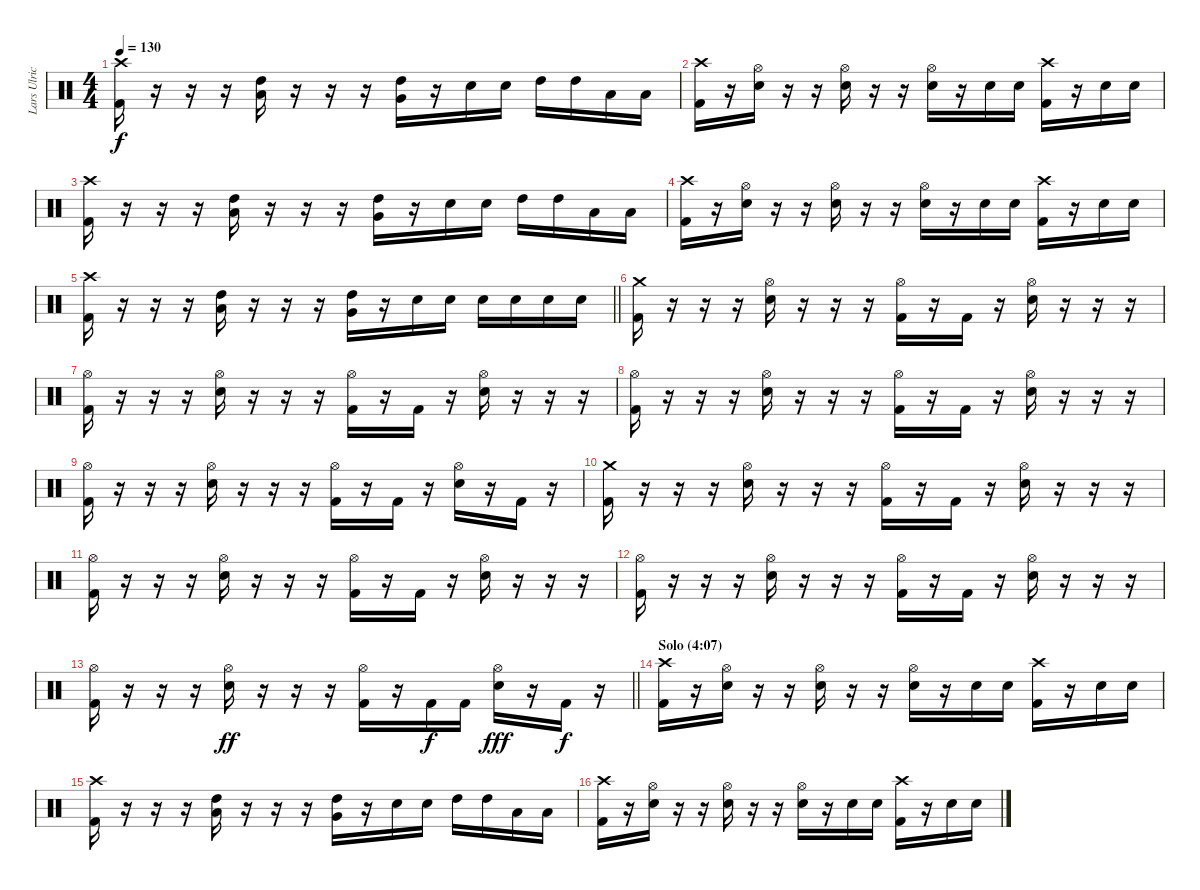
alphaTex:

\track ("Lars Ulrich" "Lars Ulric") {instrument percussion}
\staff {score}
\articulation defaults
\ts (4 4)
\tempo 130
\clef neutral
\ks c
("Crash high (hit)" "Kick (hit) 2").16{dy f} r.16 r.16 r.16 ("Low Tom (hit)" "High Tom (hit)").16 r.16 r.16 r.16 ("Very Low Tom (hit)" "High Tom (hit)").16 r.16 "Electric Snare (hit)".16 "Electric Snare (hit)".16 "High Tom (hit)".16 "High Tom (hit)".16 "Low Tom (hit)".16 "Low Tom (hit)".16 |
("Crash high (hit)" "Kick (hit) 2").16 r.16 ("Electric Snare (hit)" "Hi-Hat (open)").16 r.16 r.16 ("Electric Snare (hit)" "Hi-Hat (open)").16 r.16 r.16 ("Electric Snare (hit)" "Hi-Hat (open)").16 r.16 "Electric Snare (hit)".16 "Electric Snare (hit)".16 ("Crash high (hit)" "Kick (hit) 2").16 r.16 "Electric Snare (hit)".16 "Electric Snare (hit)".16 |
("Crash high (hit)" "Kick (hit) 2").16 r.16 r.16 r.16 ("Low Tom (hit)" "High Tom (hit)").16 r.16 r.16 r.16 ("Very Low Tom (hit)" "High Tom (hit)").16 r.16 "Electric Snare (hit)".16 "Electric Snare (hit)".16 "High Tom (hit)".16 "High Tom (hit)".16 "Low Tom (hit)".16 "Low Tom (hit)".16 |
("Crash high (hit)" "Kick (hit) 2").16 r.16 ("Electric Snare (hit)" "Hi-Hat (open)").16 r.16 r.16 ("Electric Snare (hit)" "Hi-Hat (open)").16 r.16 r.16 ("Electric Snare (hit)" "Hi-Hat (open)").16 r.16 "Electric Snare (hit)".16 "Electric Snare (hit)".16 ("Crash high (hit)" "Kick (hit) 2").16 r.16 "Electric Snare (hit)".16 "Electric Snare (hit)".16 |
\barLineRight lightlight
("Crash high (hit)" "Kick (hit) 2").16 r.16 r.16 r.16 ("Low Tom (hit)" "High Tom (hit)").16 r.16 r.16 r.16 ("Very Low Tom (hit)" "High Tom (hit)").16 r.16 "Electric Snare (hit)".16 "Electric Snare (hit)".16 "Electric Snare (hit)".16 "Electric Snare (hit)".16 "Electric Snare (hit)".16 "Electric Snare (hit)".16 |
\section ("" "")
("Crash medium (hit)" "Kick (hit) 2").16 r.16 r.16 r.16 ("Electric Snare (hit)" "Hi-Hat (open)").16 r.16 r.16 r.16 ("Hi-Hat (open)" "Kick (hit) 2").16 r.16 "Kick (hit) 2".16 r.16 ("Electric Snare (hit)" "Hi-Hat (open)").16 r.16 r.16 r.16 |
("Hi-Hat (open)" "Kick (hit) 2").16 r.16 r.16 r.16 ("Electric Snare (hit)" "Hi-Hat (open)").16 r.16 r.16 r.16 ("Hi-Hat (open)" "Kick (hit) 2").16 r.16 "Kick (hit) 2".16 r.16 ("Electric Snare (hit)" "Hi-Hat (open)").16 r.16 r.16 r.16 |
("Hi-Hat (open)" "Kick (hit) 2").16 r.16 r.16 r.16 ("Electric Snare (hit)" "Hi-Hat (open)").16 r.16 r.16 r.16 ("Hi-Hat (open)" "Kick (hit) 2").16 r.16 "Kick (hit) 2".16 r.16 ("Electric Snare (hit)" "Hi-Hat (open)").16 r.16 r.16 r.16 |
("Hi-Hat (open)" "Kick (hit) 2").16 r.16 r.16 r.16 ("Electric Snare (hit)" "Hi-Hat (open)").16 r.16 r.16 r.16 ("Hi-Hat (open)" "Kick (hit) 2").16 r.16 "Kick (hit) 2".16 r.16 ("Electric Snare (hit)" "Hi-Hat (open)").16 r.16 "Kick (hit) 2".16 r.16 |
("Crash medium (hit)" "Kick (hit) 2").16 r.16 r.16 r.16 ("Electric Snare (hit)" "Hi-Hat (open)").16 r.16 r.16 r.16 ("Hi-Hat (open)" "Kick (hit) 2").16 r.16 "Kick (hit) 2".16 r.16 ("Electric Snare (hit)" "Hi-Hat (open)").16 r.16 r.16 r.16 |
("Hi-Hat (open)" "Kick (hit) 2").16 r.16 r.16 r.16 ("Electric Snare (hit)" "Hi-Hat (open)").16 r.16 r.16 r.16 ("Hi-Hat (open)" "Kick (hit) 2").16 r.16 "Kick (hit) 2".16 r.16 ("Electric Snare (hit)" "Hi-Hat (open)").16 r.16 r.16 r.16 |
("Hi-Hat (open)" "Kick (hit) 2").16 r.16 r.16 r.16 ("Electric Snare (hit)" "Hi-Hat (open)").16 r.16 r.16 r.16 ("Hi-Hat (open)" "Kick (hit) 2").16 r.16 "Kick (hit) 2".16 r.16 ("Electric Snare (hit)" "Hi-Hat (open)").16 r.16 r.16 r.16 |
\barLineRight lightlight
("Hi-Hat (open)" "Kick (hit) 2").16 r.16 r.16 r.16 ("Electric Snare (hit)" "Hi-Hat (open)").16{dy ff} r.16 r.16 r.16 ("Hi-Hat (open)" "Kick (hit) 2").16 r.16 "Kick (hit) 2".16{dy f} "Kick (hit) 2".16 ("Electric Snare (hit)" "Hi-Hat (open)").16{dy fff} r.16 "Kick (hit) 2".16{dy f} r.16 |
\section ("" "Solo (4:07)")
("Crash high (hit)" "Kick (hit) 2").16 r.16 ("Electric Snare (hit)" "Hi-Hat (open)").16 r.16 r.16 ("Electric Snare (hit)" "Hi-Hat (open)").16 r.16 r.16 ("Electric Snare (hit)" "Hi-Hat (open)").16 r.16 "Electric Snare (hit)".16 "Electric Snare (hit)".16 ("Crash high (hit)" "Kick (hit) 2").16 r.16 "Electric Snare (hit)".16 "Electric Snare (hit)".16 |
("Crash high (hit)" "Kick (hit) 2").16 r.16 r.16 r.16 ("Low Tom (hit)" "High Tom (hit)").16 r.16 r.16 r.16 ("Very Low Tom (hit)" "High Tom (hit)").16 r.16 "Electric Snare (hit)".16 "Electric Snare (hit)".16 "High Tom (hit)".16 "High Tom (hit)".16 "Low Tom (hit)".16 "Low Tom (hit)".16 |
("Crash high (hit)" "Kick (hit) 2").16 r.16 ("Electric Snare (hit)" "Hi-Hat (open)").16 r.16 r.16 ("Electric Snare (hit)" "Hi-Hat (open)").16 r.16 r.16 ("Electric Snare (hit)" "Hi-Hat (open)").16 r.16 "Electric Snare (hit)".16 "Electric Snare (hit)".16 ("Crash high (hit)" "Kick (hit) 2").16 r.16 "Electric Snare (hit)".16 "Electric Snare (hit)".16
